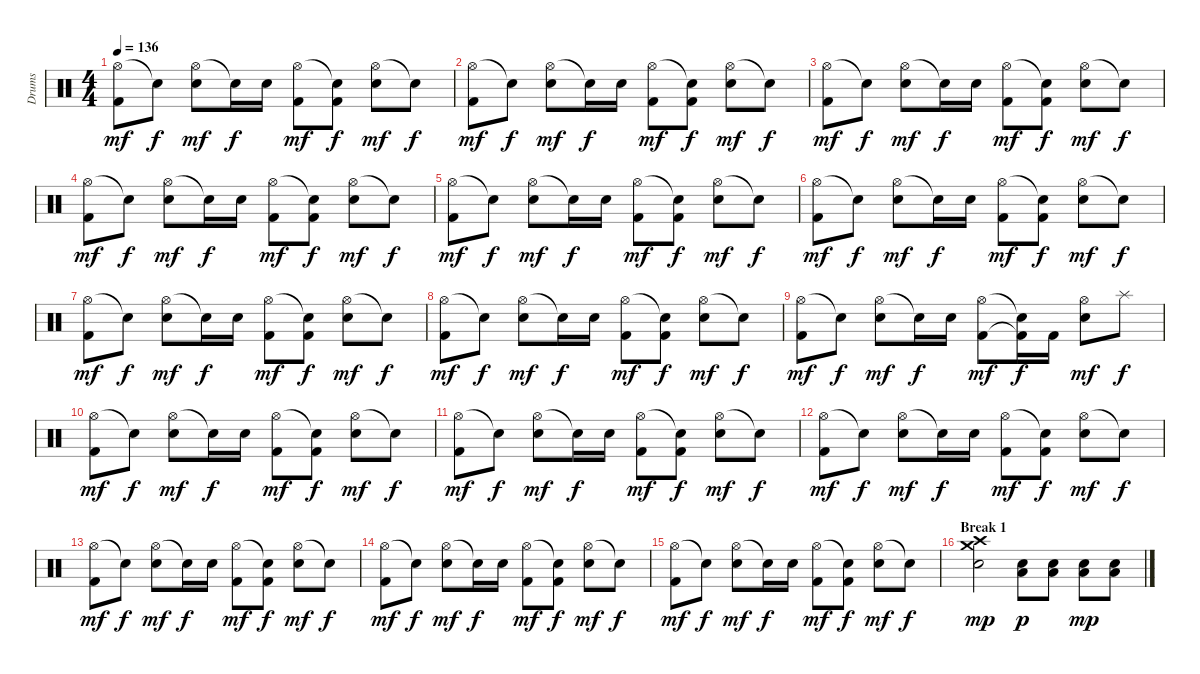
\track ("Drums" "Drums") {instrument percussion}
\staff {score}
\articulation defaults
\ts (4 4)
\tempo 136
\clef neutral
\ks c
("Hi-Hat (open)" "Kick (hit) 2").8{dy mf} "Snare (hit)"{t}.8{dy f} ("Hi-Hat (open)" "Electric Snare (hit)").8{dy mf} "Snare (hit)"{t}.16{dy f} "Electric Snare (hit)".16 ("Hi-Hat (open)" "Kick (hit) 2").8{dy mf} ("Snare (hit)"{t} "Kick (hit) 2").8{dy f} ("Hi-Hat (open)" "Electric Snare (hit)").8{dy mf} "Snare (hit)"{t}.8{dy f} |
("Hi-Hat (open)" "Kick (hit) 2").8{dy mf} "Snare (hit)"{t}.8{dy f} ("Hi-Hat (open)" "Electric Snare (hit)").8{dy mf} "Snare (hit)"{t}.16{dy f} "Electric Snare (hit)".16 ("Hi-Hat (open)" "Kick (hit) 2").8{dy mf} ("Snare (hit)"{t} "Kick (hit) 2").8{dy f} ("Hi-Hat (open)" "Electric Snare (hit)").8{dy mf} "Snare (hit)"{t}.8{dy f} |
("Hi-Hat (open)" "Kick (hit) 2").8{dy mf} "Snare (hit)"{t}.8{dy f} ("Hi-Hat (open)" "Electric Snare (hit)").8{dy mf} "Snare (hit)"{t}.16{dy f} "Electric Snare (hit)".16 ("Hi-Hat (open)" "Kick (hit) 2").8{dy mf} ("Snare (hit)"{t} "Kick (hit) 2").8{dy f} ("Hi-Hat (open)" "Electric Snare (hit)").8{dy mf} "Snare (hit)"{t}.8{dy f} |
("Hi-Hat (open)" "Kick (hit) 2").8{dy mf} "Snare (hit)"{t}.8{dy f} ("Hi-Hat (open)" "Electric Snare (hit)").8{dy mf} "Snare (hit)"{t}.16{dy f} "Electric Snare (hit)".16 ("Hi-Hat (open)" "Kick (hit) 2").8{dy mf} ("Snare (hit)"{t} "Kick (hit) 2").8{dy f} ("Hi-Hat (open)" "Electric Snare (hit)").8{dy mf} "Snare (hit)"{t}.8{dy f} |
("Hi-Hat (open)" "Kick (hit) 2").8{dy mf} "Snare (hit)"{t}.8{dy f} ("Hi-Hat (open)" "Electric Snare (hit)").8{dy mf} "Snare (hit)"{t}.16{dy f} "Electric Snare (hit)".16 ("Hi-Hat (open)" "Kick (hit) 2").8{dy mf} ("Snare (hit)"{t} "Kick (hit) 2").8{dy f} ("Hi-Hat (open)" "Electric Snare (hit)").8{dy mf} "Snare (hit)"{t}.8{dy f} |
("Hi-Hat (open)" "Kick (hit) 2").8{dy mf} "Snare (hit)"{t}.8{dy f} ("Hi-Hat (open)" "Electric Snare (hit)").8{dy mf} "Snare (hit)"{t}.16{dy f} "Electric Snare (hit)".16 ("Hi-Hat (open)" "Kick (hit) 2").8{dy mf} ("Snare (hit)"{t} "Kick (hit) 2").8{dy f} ("Hi-Hat (open)" "Electric Snare (hit)").8{dy mf} "Snare (hit)"{t}.8{dy f} |
("Hi-Hat (open)" "Kick (hit) 2").8{dy mf} "Snare (hit)"{t}.8{dy f} ("Hi-Hat (open)" "Electric Snare (hit)").8{dy mf} "Snare (hit)"{t}.16{dy f} "Electric Snare (hit)".16 ("Hi-Hat (open)" "Kick (hit) 2").8{dy mf} ("Snare (hit)"{t} "Kick (hit) 2").8{dy f} ("Hi-Hat (open)" "Electric Snare (hit)").8{dy mf} "Snare (hit)"{t}.8{dy f} |
("Hi-Hat (open)" "Kick (hit) 2").8{dy mf} "Snare (hit)"{t}.8{dy f} ("Hi-Hat (open)" "Electric Snare (hit)").8{dy mf} "Snare (hit)"{t}.16{dy f} "Electric Snare (hit)".16 ("Hi-Hat (open)" "Kick (hit) 2").8{dy mf} ("Snare (hit)"{t} "Kick (hit) 2").8{dy f} ("Hi-Hat (open)" "Electric Snare (hit)").8{dy mf} "Snare (hit)"{t}.8{dy f} |
("Hi-Hat (open)" "Kick (hit) 2").8{dy mf} "Snare (hit)"{t}.8{dy f} ("Hi-Hat (open)" "Electric Snare (hit)").8{dy mf} "Snare (hit)"{t}.16{dy f} "Electric Snare (hit)".16 ("Hi-Hat (open)" "Kick (hit) 2").8{dy mf} ("Snare (hit)"{t} "Kick (hit) 2"{t}).16{dy f} "Kick (hit) 2".16 ("Hi-Hat (open)" "Electric Snare (hit)").8{dy mf} "Splash (hit)".8{dy f} |
("Hi-Hat (open)" "Kick (hit) 2").8{dy mf} "Snare (hit)"{t}.8{dy f} ("Hi-Hat (open)" "Electric Snare (hit)").8{dy mf} "Snare (hit)"{t}.16{dy f} "Electric Snare (hit)".16 ("Hi-Hat (open)" "Kick (hit) 2").8{dy mf} ("Snare (hit)"{t} "Kick (hit) 2").8{dy f} ("Hi-Hat (open)" "Electric Snare (hit)").8{dy mf} "Snare (hit)"{t}.8{dy f} |
("Hi-Hat (open)" "Kick (hit) 2").8{dy mf} "Snare (hit)"{t}.8{dy f} ("Hi-Hat (open)" "Electric Snare (hit)").8{dy mf} "Snare (hit)"{t}.16{dy f} "Electric Snare (hit)".16 ("Hi-Hat (open)" "Kick (hit) 2").8{dy mf} ("Snare (hit)"{t} "Kick (hit) 2").8{dy f} ("Hi-Hat (open)" "Electric Snare (hit)").8{dy mf} "Snare (hit)"{t}.8{dy f} |
("Hi-Hat (open)" "Kick (hit) 2").8{dy mf} "Snare (hit)"{t}.8{dy f} ("Hi-Hat (open)" "Electric Snare (hit)").8{dy mf} "Snare (hit)"{t}.16{dy f} "Electric Snare (hit)".16 ("Hi-Hat (open)" "Kick (hit) 2").8{dy mf} ("Snare (hit)"{t} "Kick (hit) 2").8{dy f} ("Hi-Hat (open)" "Electric Snare (hit)").8{dy mf} "Snare (hit)"{t}.8{dy f} |
("Hi-Hat (open)" "Kick (hit) 2").8{dy mf} "Snare (hit)"{t}.8{dy f} ("Hi-Hat (open)" "Electric Snare (hit)").8{dy mf} "Snare (hit)"{t}.16{dy f} "Electric Snare (hit)".16 ("Hi-Hat (open)" "Kick (hit) 2").8{dy mf} ("Snare (hit)"{t} "Kick (hit) 2").8{dy f} ("Hi-Hat (open)" "Electric Snare (hit)").8{dy mf} "Snare (hit)"{t}.8{dy f} |
("Hi-Hat (open)" "Kick (hit) 2").8{dy mf} "Snare (hit)"{t}.8{dy f} ("Hi-Hat (open)" "Electric Snare (hit)").8{dy mf} "Snare (hit)"{t}.16{dy f} "Electric Snare (hit)".16 ("Hi-Hat (open)" "Kick (hit) 2").8{dy mf} ("Snare (hit)"{t} "Kick (hit) 2").8{dy f} ("Hi-Hat (open)" "Electric Snare (hit)").8{dy mf} "Snare (hit)"{t}.8{dy f} |
("Hi-Hat (open)" "Kick (hit) 2").8{dy mf} "Snare (hit)"{t}.8{dy f} ("Hi-Hat (open)" "Electric Snare (hit)").8{dy mf} "Snare (hit)"{t}.16{dy f} "Electric Snare (hit)".16 ("Hi-Hat (open)" "Kick (hit) 2").8{dy mf} ("Snare (hit)"{t} "Kick (hit) 2").8{dy f} ("Hi-Hat (open)" "Electric Snare (hit)").8{dy mf} "Snare (hit)"{t}.8{dy f} |
\section ("" "Break 1")
("Crash medium (hit)" "Crash high (hit)" "Electric Snare (hit)").2{dy mp} ("Low Tom (hit)" "Electric Snare (hit)").8{dy p} ("Low Tom (hit)" "Electric Snare (hit)").8 ("Low Tom (hit)" "Electric Snare (hit)").8{dy mp} ("Low Tom (hit)" "Electric Snare (hit)").8
